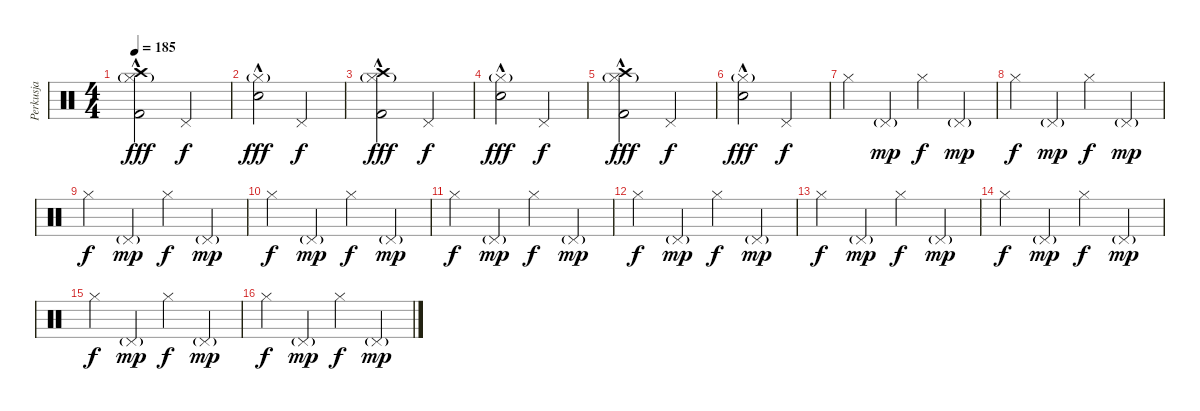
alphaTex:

\track ("Perkusja" "Perkusja") {instrument percussion}
\staff {score}
\articulation defaults
\ts (4 4)
\tempo 185
\clef neutral
\ks c
("Crash high (hit)" "Hi-Hat (closed)"{g} "Kick (hit) 2"{hac}).2{dy fff} "Pedal Hi-Hat (hit)".2{dy f} |
("Hi-Hat (closed)"{g} "Electric Snare (hit)"{hac}).2{dy fff} "Pedal Hi-Hat (hit)".2{dy f} |
("Crash high (hit)" "Hi-Hat (closed)"{g} "Kick (hit) 2"{hac}).2{dy fff} "Pedal Hi-Hat (hit)".2{dy f} |
("Hi-Hat (closed)"{g} "Electric Snare (hit)"{hac}).2{dy fff} "Pedal Hi-Hat (hit)".2{dy f} |
("Crash high (hit)" "Hi-Hat (closed)"{g} "Kick (hit) 2"{hac}).2{dy fff} "Pedal Hi-Hat (hit)".2{dy f} |
("Hi-Hat (closed)"{g} "Electric Snare (hit)"{hac}).2{dy fff} "Pedal Hi-Hat (hit)".2{dy f} |
"Hi-Hat (closed)".4 "Pedal Hi-Hat (hit)"{g}.4{dy mp} "Hi-Hat (closed)".4{dy f} "Pedal Hi-Hat (hit)"{g}.4{dy mp} |
"Hi-Hat (closed)".4{dy f} "Pedal Hi-Hat (hit)"{g}.4{dy mp} "Hi-Hat (closed)".4{dy f} "Pedal Hi-Hat (hit)"{g}.4{dy mp} |
"Hi-Hat (closed)".4{dy f} "Pedal Hi-Hat (hit)"{g}.4{dy mp} "Hi-Hat (closed)".4{dy f} "Pedal Hi-Hat (hit)"{g}.4{dy mp} |
"Hi-Hat (closed)".4{dy f} "Pedal Hi-Hat (hit)"{g}.4{dy mp} "Hi-Hat (closed)".4{dy f} "Pedal Hi-Hat (hit)"{g}.4{dy mp} |
"Hi-Hat (closed)".4{dy f} "Pedal Hi-Hat (hit)"{g}.4{dy mp} "Hi-Hat (closed)".4{dy f} "Pedal Hi-Hat (hit)"{g}.4{dy mp} |
"Hi-Hat (closed)".4{dy f} "Pedal Hi-Hat (hit)"{g}.4{dy mp} "Hi-Hat (closed)".4{dy f} "Pedal Hi-Hat (hit)"{g}.4{dy mp} |
"Hi-Hat (closed)".4{dy f} "Pedal Hi-Hat (hit)"{g}.4{dy mp} "Hi-Hat (closed)".4{dy f} "Pedal Hi-Hat (hit)"{g}.4{dy mp} |
"Hi-Hat (closed)".4{dy f} "Pedal Hi-Hat (hit)"{g}.4{dy mp} "Hi-Hat (closed)".4{dy f} "Pedal Hi-Hat (hit)"{g}.4{dy mp} |
"Hi-Hat (closed)".4{dy f} "Pedal Hi-Hat (hit)"{g}.4{dy mp} "Hi-Hat (closed)".4{dy f} "Pedal Hi-Hat (hit)"{g}.4{dy mp} |
"Hi-Hat (closed)".4{dy f} "Pedal Hi-Hat (hit)"{g}.4{dy mp} "Hi-Hat (closed)".4{dy f} "Pedal Hi-Hat (hit)"{g}.4{dy mp}
